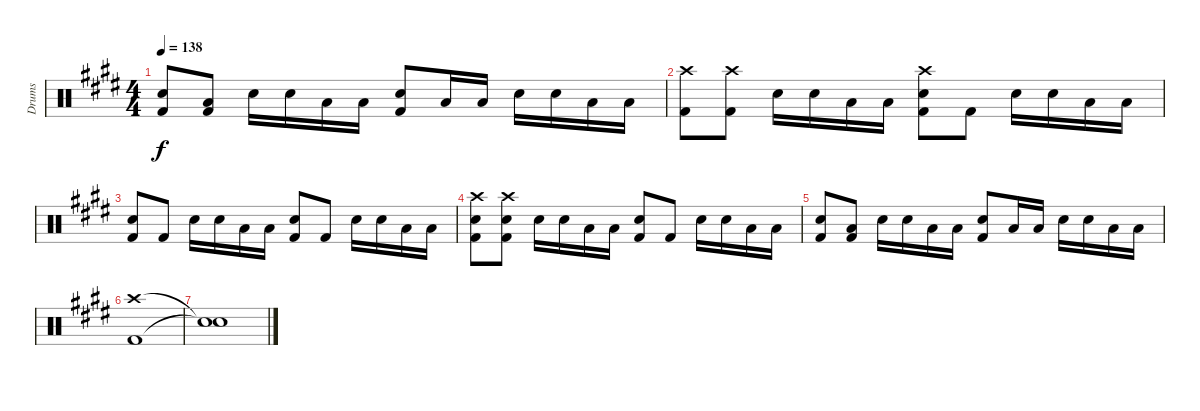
\track ("Drums" "Drums") {instrument percussion}
\staff {score}
\articulation defaults
\ts (4 4)
\tempo 138
\clef neutral
\ks c#minor
("Snare (hit) 2" "Kick (hit) 2").8{dy f} ("Low Tom (hit)" "Kick (hit) 2").8 "Snare (hit) 2".16 "Snare (hit) 2".16 "Low Tom (hit)".16 "Low Tom (hit)".16 ("Snare (hit) 2" "Kick (hit) 2").8 "Low Tom (hit)".16 "Low Tom (hit)".16 "Snare (hit) 2".16 "Snare (hit) 2".16 "Low Tom (hit)".16 "Low Tom (hit)".16 |
\ks e
("Crash high (hit)" "Kick (hit) 2").8 ("Crash high (hit)" "Kick (hit) 2").8 "Snare (hit) 2".16 "Snare (hit) 2".16 "Low Tom (hit)".16 "Low Tom (hit)".16 ("Crash high (hit)" "Snare (hit) 2" "Kick (hit) 2").8 "Kick (hit) 2".8 "Snare (hit) 2".16 "Snare (hit) 2".16 "Low Tom (hit)".16 "Low Tom (hit)".16 |
\ks c#minor
("Snare (hit) 2" "Kick (hit) 2").8 "Kick (hit) 2".8 "Snare (hit) 2".16 "Snare (hit) 2".16 "Low Tom (hit)".16 "Low Tom (hit)".16 ("Snare (hit) 2" "Kick (hit) 2").8 "Kick (hit) 2".8 "Snare (hit) 2".16 "Snare (hit) 2".16 "Low Tom (hit)".16 "Low Tom (hit)".16 |
("Crash high (hit)" "Snare (hit) 2" "Kick (hit) 2").8 ("Crash high (hit)" "Snare (hit) 2" "Kick (hit) 2").8 "Snare (hit) 2".16 "Snare (hit) 2".16 "Low Tom (hit)".16 "Low Tom (hit)".16 ("Snare (hit) 2" "Kick (hit) 2").8 "Kick (hit) 2".8 "Snare (hit) 2".16 "Snare (hit) 2".16 "Low Tom (hit)".16 "Low Tom (hit)".16 |
("Snare (hit) 2" "Kick (hit) 2").8 ("Low Tom (hit)" "Kick (hit) 2").8 "Snare (hit) 2".16 "Snare (hit) 2".16 "Low Tom (hit)".16 "Low Tom (hit)".16 ("Snare (hit) 2" "Kick (hit) 2").8 "Low Tom (hit)".16 "Low Tom (hit)".16 "Snare (hit) 2".16 "Snare (hit) 2".16 "Low Tom (hit)".16 "Low Tom (hit)".16 |
("Crash high (hit)" "Kick (hit) 2").1 |
("Snare (hit)"{t} "Snare (hit)"{t}).1
